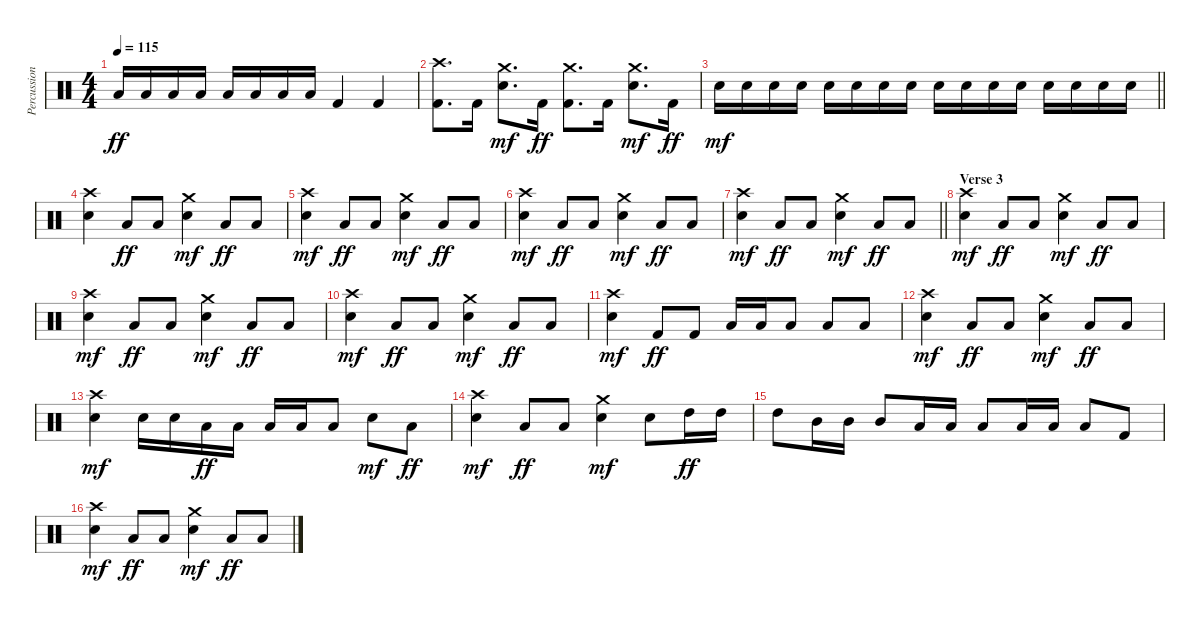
\track ("Percussion" "Percussion") {instrument percussion}
\staff {score}
\articulation defaults
\ts (4 4)
\tempo 115
\clef neutral
\ks c "Low Floor Tom (hit)".16{dy ff} "Low Floor Tom (hit)".16 "Low Floor Tom (hit)".16 "Low Floor Tom (hit)".16 "Low Floor Tom (hit)".16 "Low Floor Tom (hit)".16 "Low Floor Tom (hit)".16 "Low Floor Tom (hit)".16 "Kick (hit) 2".4 "Kick (hit) 2".4
|
("Crash high (hit)" "Kick (hit) 2").8{d} "Kick (hit) 2".16 ("Crash medium (hit)" "Snare (hit) 2").8{d dy mf} "Kick (hit) 2".16{dy ff} ("Crash medium (hit)" "Kick (hit) 2").8{d} "Kick (hit) 2".16 ("Crash medium (hit)" "Snare (hit) 2").8{d dy mf} "Kick (hit) 2".16{dy ff} |
\barLineRight lightlight "Snare (hit) 2".16{dy mf} "Snare (hit) 2".16 "Snare (hit) 2".16 "Snare (hit) 2".16 "Snare (hit) 2".16 "Snare (hit) 2".16 "Snare (hit) 2".16 "Snare (hit) 2".16 "Snare (hit) 2".16 "Snare (hit) 2".16 "Snare (hit) 2".16 "Snare (hit) 2".16 "Snare (hit) 2".16 "Snare (hit) 2".16 "Snare (hit) 2".16 "Snare (hit) 2".16
|
("Crash high (hit)" "Snare (hit) 2").4 "Low Floor Tom (hit)".8{dy ff} "Low Floor Tom (hit)".8 ("Crash medium (hit)" "Snare (hit) 2").4{dy mf} "Low Floor Tom (hit)".8{dy ff} "Low Floor Tom (hit)".8 |
("Crash high (hit)" "Snare (hit) 2").4{dy mf} "Low Floor Tom (hit)".8{dy ff} "Low Floor Tom (hit)".8 ("Crash medium (hit)" "Snare (hit) 2").4{dy mf} "Low Floor Tom (hit)".8{dy ff} "Low Floor Tom (hit)".8 |
("Crash high (hit)" "Snare (hit) 2").4{dy mf} "Low Floor Tom (hit)".8{dy ff} "Low Floor Tom (hit)".8 ("Crash medium (hit)" "Snare (hit) 2").4{dy mf} "Low Floor Tom (hit)".8{dy ff} "Low Floor Tom (hit)".8 |
\barLineRight lightlight
("Crash high (hit)" "Snare (hit) 2").4{dy mf} "Low Floor Tom (hit)".8{dy ff} "Low Floor Tom (hit)".8 ("Crash medium (hit)" "Snare (hit) 2").4{dy mf} "Low Floor Tom (hit)".8{dy ff} "Low Floor Tom (hit)".8 |
\section ("" "Verse 3")
("Crash high (hit)" "Snare (hit) 2").4{dy mf} "Low Floor Tom (hit)".8{dy ff} "Low Floor Tom (hit)".8 ("Crash medium (hit)" "Snare (hit) 2").4{dy mf} "Low Floor Tom (hit)".8{dy ff} "Low Floor Tom (hit)".8 |
("Crash high (hit)" "Snare (hit) 2").4{dy mf} "Low Floor Tom (hit)".8{dy ff} "Low Floor Tom (hit)".8 ("Crash medium (hit)" "Snare (hit) 2").4{dy mf} "Low Floor Tom (hit)".8{dy ff} "Low Floor Tom (hit)".8 |
("Crash high (hit)" "Snare (hit) 2").4{dy mf} "Low Floor Tom (hit)".8{dy ff} "Low Floor Tom (hit)".8 ("Crash medium (hit)" "Snare (hit) 2").4{dy mf} "Low Floor Tom (hit)".8{dy ff} "Low Floor Tom (hit)".8 |
("Crash high (hit)" "Snare (hit) 2").4{dy mf} "Kick (hit) 2".8{dy ff} "Kick (hit) 2".8 "Low Tom (hit)".16 "Low Tom (hit)".16 "Low Tom (hit)".8 "Low Floor Tom (hit)".8 "Low Floor Tom (hit)".8 |
("Crash high (hit)" "Snare (hit) 2").4{dy mf} "Low Floor Tom (hit)".8{dy ff} "Low Floor Tom (hit)".8 ("Crash medium (hit)" "Snare (hit) 2").4{dy mf} "Low Floor Tom (hit)".8{dy ff} "Low Floor Tom (hit)".8 |
("Crash high (hit)" "Snare (hit) 2").4{dy mf} "Snare (hit) 2".16 "Snare (hit) 2".16 "Low Tom (hit)".16{dy ff} "Low Tom (hit)".16 "Low Floor Tom (hit)".16 "Low Tom (hit)".16 "Low Tom (hit)".8 "Snare (hit) 2".8{dy mf} "Low Floor Tom (hit)".8{dy ff} |
("Crash high (hit)" "Snare (hit) 2").4{dy mf} "Low Floor Tom (hit)".8{dy ff} "Low Floor Tom (hit)".8 ("Crash medium (hit)" "Snare (hit) 2").4{dy mf} "Snare (hit) 2".8 "High Tom (hit)".16{dy ff} "High Tom (hit)".16 |
"High Tom (hit)".8 "Mid Tom (hit)".16 "Mid Tom (hit)".16 "Mid Tom (hit)".8 "Low Tom (hit)".16 "Low Tom (hit)".16 "Low Tom (hit)".8 "Low Floor Tom (hit)".16 "Low Floor Tom (hit)".16 "Low Floor Tom (hit)".8 "Kick (hit) 2".8 |
("Crash high (hit)" "Snare (hit) 2").4{dy mf} "Low Floor Tom (hit)".8{dy ff} "Low Floor Tom (hit)".8 ("Crash medium (hit)" "Snare (hit) 2").4{dy mf} "Low Floor Tom (hit)".8{dy ff} "Low Floor Tom (hit)".8
